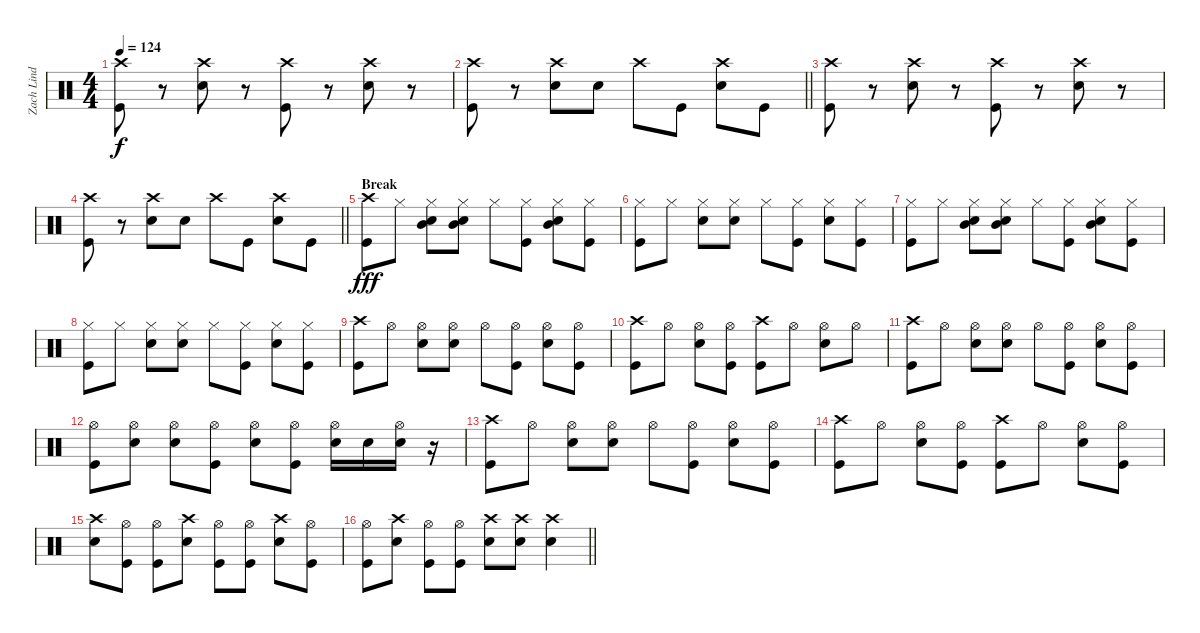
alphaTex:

\track ("Zach Lind - Drums" "Zach Lind ") {instrument percussion}
\staff {score}
\articulation defaults
\ts (4 4)
\tempo 124
\clef neutral
\ks c
("Kick (hit)" "Crash high (hit)").8{dy f} r.8 ("Snare (hit) 2" "Crash high (hit)").8 r.8 ("Kick (hit)" "Crash high (hit)").8 r.8 ("Snare (hit) 2" "Crash high (hit)").8 r.8 |
\barLineRight lightlight
("Kick (hit)" "Crash high (hit)").8 r.8 ("Snare (hit) 2" "Crash high (hit)").8 "Snare (hit) 2".8 "Crash high (hit)".8 "Kick (hit)".8 ("Snare (hit) 2" "Crash high (hit)").8 "Kick (hit)".8 |
("Kick (hit)" "Crash high (hit)").8 r.8 ("Snare (hit) 2" "Crash high (hit)").8 r.8 ("Kick (hit)" "Crash high (hit)").8 r.8 ("Snare (hit) 2" "Crash high (hit)").8 r.8 |
\barLineRight lightlight
("Kick (hit)" "Crash high (hit)").8 r.8 ("Snare (hit) 2" "Crash high (hit)").8 "Snare (hit) 2".8 "Crash high (hit)".8 "Kick (hit)".8 ("Snare (hit) 2" "Crash high (hit)").8 "Kick (hit)".8 |
\section ("" "Break")
("Kick (hit)" "Crash high (hit)").8{dy fff} "Hi-Hat (closed)".8 ("Snare (hit) 2" "Mid Tom (hit)" "Hi-Hat (closed)").8 ("Snare (hit) 2" "Mid Tom (hit)" "Hi-Hat (closed)").8 "Hi-Hat (closed)".8 ("Kick (hit)" "Hi-Hat (closed)").8 ("Snare (hit) 2" "Mid Tom (hit)" "Hi-Hat (closed)").8 ("Kick (hit)" "Hi-Hat (closed)").8 |
("Kick (hit)" "Hi-Hat (closed)").8 "Hi-Hat (closed)".8 ("Snare (hit) 2" "Hi-Hat (closed)").8 ("Snare (hit) 2" "Hi-Hat (closed)").8 "Hi-Hat (closed)".8 ("Kick (hit)" "Hi-Hat (closed)").8 ("Snare (hit) 2" "Hi-Hat (closed)").8 ("Kick (hit)" "Hi-Hat (closed)").8 |
("Kick (hit)" "Hi-Hat (closed)").8 "Hi-Hat (closed)".8 ("Snare (hit) 2" "Mid Tom (hit)" "Hi-Hat (closed)").8 ("Snare (hit) 2" "Mid Tom (hit)" "Hi-Hat (closed)").8 "Hi-Hat (closed)".8 ("Kick (hit)" "Hi-Hat (closed)").8 ("Snare (hit) 2" "Mid Tom (hit)" "Hi-Hat (closed)").8 ("Kick (hit)" "Hi-Hat (closed)").8 |
("Kick (hit)" "Hi-Hat (closed)").8 "Hi-Hat (closed)".8 ("Snare (hit) 2" "Hi-Hat (closed)").8 ("Snare (hit) 2" "Hi-Hat (closed)").8 "Hi-Hat (closed)".8 ("Kick (hit)" "Hi-Hat (closed)").8 ("Snare (hit) 2" "Hi-Hat (closed)").8 ("Kick (hit)" "Hi-Hat (closed)").8 |
("Kick (hit)" "Crash high (hit)").8 "Hi-Hat (open)".8 ("Snare (hit) 2" "Hi-Hat (open)").8 ("Snare (hit) 2" "Hi-Hat (open)").8 "Hi-Hat (open)".8 ("Kick (hit)" "Hi-Hat (open)").8 ("Snare (hit) 2" "Hi-Hat (open)").8 ("Kick (hit)" "Hi-Hat (open)").8 |
("Kick (hit)" "Crash high (hit)").8 "Hi-Hat (open)".8 ("Snare (hit) 2" "Hi-Hat (open)").8 ("Kick (hit)" "Hi-Hat (open)").8 ("Kick (hit)" "Crash high (hit)").8 "Hi-Hat (open)".8 ("Snare (hit) 2" "Hi-Hat (open)").8 "Hi-Hat (open)".8 |
("Kick (hit)" "Crash high (hit)").8 "Hi-Hat (open)".8 ("Snare (hit) 2" "Hi-Hat (open)").8 ("Snare (hit) 2" "Hi-Hat (open)").8 "Hi-Hat (open)".8 ("Kick (hit)" "Hi-Hat (open)").8 ("Snare (hit) 2" "Hi-Hat (open)").8 ("Kick (hit)" "Hi-Hat (open)").8 |
("Kick (hit)" "Hi-Hat (open)").8 ("Snare (hit) 2" "Hi-Hat (open)").8 ("Snare (hit) 2" "Hi-Hat (open)").8 ("Kick (hit)" "Hi-Hat (open)").8 ("Snare (hit) 2" "Hi-Hat (open)").8 ("Kick (hit)" "Hi-Hat (open)").8 ("Snare (hit) 2" "Hi-Hat (open)").16 "Snare (hit) 2".16 ("Snare (hit) 2" "Hi-Hat (open)").16 r.16 |
("Kick (hit)" "Crash high (hit)").8 "Hi-Hat (open)".8 ("Snare (hit) 2" "Hi-Hat (open)").8 ("Snare (hit) 2" "Hi-Hat (open)").8 "Hi-Hat (open)".8 ("Kick (hit)" "Hi-Hat (open)").8 ("Snare (hit) 2" "Hi-Hat (open)").8 ("Kick (hit)" "Hi-Hat (open)").8 |
("Kick (hit)" "Crash high (hit)").8 "Hi-Hat (open)".8 ("Snare (hit) 2" "Hi-Hat (open)").8 ("Kick (hit)" "Hi-Hat (open)").8 ("Kick (hit)" "Crash high (hit)").8 "Hi-Hat (open)".8 ("Snare (hit) 2" "Hi-Hat (open)").8 ("Kick (hit)" "Hi-Hat (open)").8 |
("Snare (hit) 2" "Crash high (hit)").8 ("Kick (hit)" "Hi-Hat (open)").8 ("Kick (hit)" "Hi-Hat (open)").8 ("Snare (hit) 2" "Crash high (hit)").8 ("Kick (hit)" "Hi-Hat (open)").8 ("Kick (hit)" "Hi-Hat (open)").8 ("Snare (hit) 2" "Crash high (hit)").8 ("Kick (hit)" "Hi-Hat (open)").8 |
\barLineRight lightlight
("Kick (hit)" "Hi-Hat (open)").8 ("Snare (hit) 2" "Crash high (hit)").8 ("Kick (hit)" "Hi-Hat (open)").8 ("Kick (hit)" "Hi-Hat (open)").8 ("Snare (hit) 2" "Crash high (hit)").8 ("Snare (hit) 2" "Crash high (hit)").8 ("Snare (hit) 2" "Crash high (hit)").4
